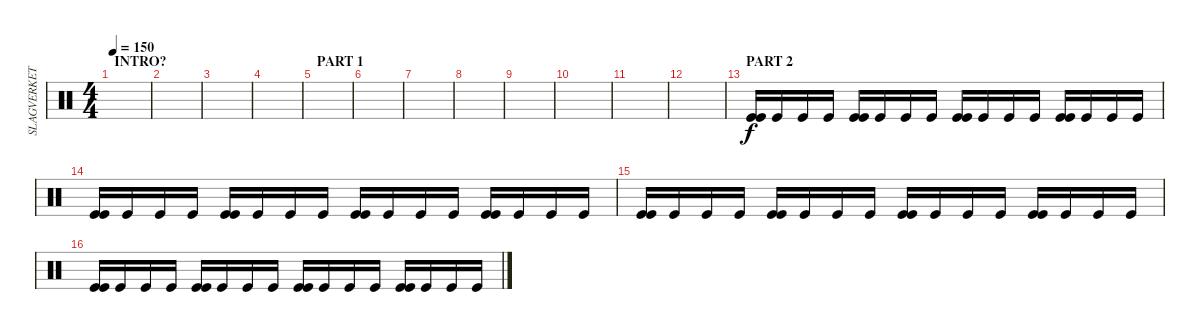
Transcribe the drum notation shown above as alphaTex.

\track ("SLAGVERKET KAGGE" "SLAGVERKET") {instrument percussion}
\staff {score}
\articulation defaults
\ts (4 4)
\section ("" "INTRO?")
\tempo 150
\clef neutral
\ks c
|
|
|
|
\section ("" "PART 1")
|
|
|
|
|
|
|
|
\section ("" "PART 2")
("Kick (hit)" "Kick (hit)").16 "Kick (hit)".16 "Kick (hit)".16 "Kick (hit)".16 ("Kick (hit)" "Kick (hit)").16 "Kick (hit)".16 "Kick (hit)".16 "Kick (hit)".16 ("Kick (hit)" "Kick (hit)").16 "Kick (hit)".16 "Kick (hit)".16 "Kick (hit)".16 ("Kick (hit)" "Kick (hit)").16 "Kick (hit)".16 "Kick (hit)".16 "Kick (hit)".16 |
("Kick (hit)" "Kick (hit)").16 "Kick (hit)".16 "Kick (hit)".16 "Kick (hit)".16 ("Kick (hit)" "Kick (hit)").16 "Kick (hit)".16 "Kick (hit)".16 "Kick (hit)".16 ("Kick (hit)" "Kick (hit)").16 "Kick (hit)".16 "Kick (hit)".16 "Kick (hit)".16 ("Kick (hit)" "Kick (hit)").16 "Kick (hit)".16 "Kick (hit)".16 "Kick (hit)".16 |
("Kick (hit)" "Kick (hit)").16 "Kick (hit)".16 "Kick (hit)".16 "Kick (hit)".16 ("Kick (hit)" "Kick (hit)").16 "Kick (hit)".16 "Kick (hit)".16 "Kick (hit)".16 ("Kick (hit)" "Kick (hit)").16 "Kick (hit)".16 "Kick (hit)".16 "Kick (hit)".16 ("Kick (hit)" "Kick (hit)").16 "Kick (hit)".16 "Kick (hit)".16 "Kick (hit)".16 |
("Kick (hit)" "Kick (hit)").16 "Kick (hit)".16 "Kick (hit)".16 "Kick (hit)".16 ("Kick (hit)" "Kick (hit)").16 "Kick (hit)".16 "Kick (hit)".16 "Kick (hit)".16 ("Kick (hit)" "Kick (hit)").16 "Kick (hit)".16 "Kick (hit)".16 "Kick (hit)".16 ("Kick (hit)" "Kick (hit)").16 "Kick (hit)".16 "Kick (hit)".16 "Kick (hit)".16
